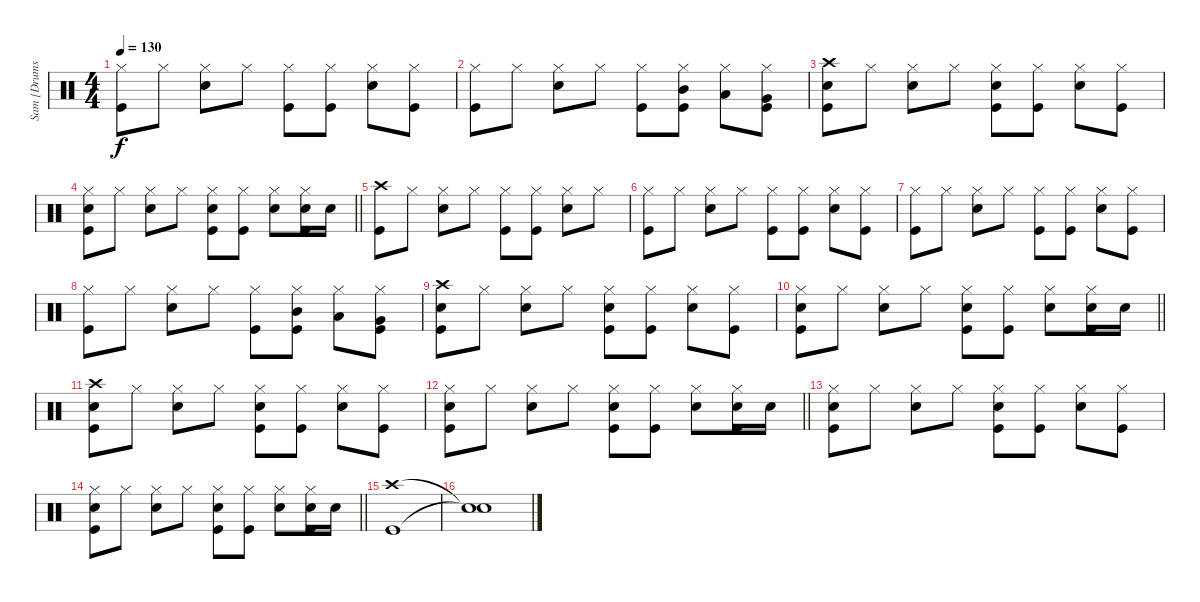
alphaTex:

\track ("Sam [Drums]" "Sam [Drums") {instrument percussion}
\staff {score}
\articulation defaults
\ts (4 4)
\tempo 130
\clef neutral
\ks c
("Hi-Hat (closed)" "Kick (hit)").8{dy f} "Hi-Hat (closed)".8 ("Hi-Hat (closed)" "Snare (hit) 2").8 "Hi-Hat (closed)".8 ("Hi-Hat (closed)" "Kick (hit)").8 ("Hi-Hat (closed)" "Kick (hit)").8 ("Hi-Hat (closed)" "Snare (hit) 2").8 ("Hi-Hat (closed)" "Kick (hit)").8 |
("Hi-Hat (closed)" "Kick (hit)").8 "Hi-Hat (closed)".8 ("Hi-Hat (closed)" "Snare (hit) 2").8 "Hi-Hat (closed)".8 ("Hi-Hat (closed)" "Kick (hit)").8 ("Hi-Hat (closed)" "Mid Tom (hit)" "Kick (hit)").8 ("Hi-Hat (closed)" "Low Tom (hit)").8 ("Hi-Hat (closed)" "Very Low Tom (hit)" "Kick (hit)").8 |
("Crash high (hit)" "Snare (hit) 2" "Kick (hit)").8 "Hi-Hat (closed)".8 ("Hi-Hat (closed)" "Snare (hit) 2").8 "Hi-Hat (closed)".8 ("Hi-Hat (closed)" "Snare (hit) 2" "Kick (hit)").8 ("Hi-Hat (closed)" "Kick (hit)").8 ("Hi-Hat (closed)" "Snare (hit) 2").8 ("Hi-Hat (closed)" "Kick (hit)").8 |
\barLineRight lightlight
("Hi-Hat (closed)" "Snare (hit) 2" "Kick (hit)").8 "Hi-Hat (closed)".8 ("Hi-Hat (closed)" "Snare (hit) 2").8 "Hi-Hat (closed)".8 ("Hi-Hat (closed)" "Snare (hit) 2" "Kick (hit)").8 ("Hi-Hat (closed)" "Kick (hit)").8 ("Hi-Hat (closed)" "Snare (hit) 2").8 ("Hi-Hat (closed)" "Snare (hit) 2" "Kick (hit)").16 "Snare (hit) 2".16 |
("Crash high (hit)" "Kick (hit)").8 "Hi-Hat (closed)".8 ("Hi-Hat (closed)" "Snare (hit) 2").8 "Hi-Hat (closed)".8 ("Hi-Hat (closed)" "Kick (hit)").8 ("Hi-Hat (closed)" "Kick (hit)").8 ("Hi-Hat (closed)" "Snare (hit) 2").8 "Hi-Hat (closed)".8 |
("Hi-Hat (closed)" "Kick (hit)").8 "Hi-Hat (closed)".8 ("Hi-Hat (closed)" "Snare (hit) 2").8 "Hi-Hat (closed)".8 ("Hi-Hat (closed)" "Kick (hit)").8 ("Hi-Hat (closed)" "Kick (hit)").8 ("Hi-Hat (closed)" "Snare (hit) 2").8 ("Hi-Hat (closed)" "Kick (hit)").8 |
("Hi-Hat (closed)" "Kick (hit)").8 "Hi-Hat (closed)".8 ("Hi-Hat (closed)" "Snare (hit) 2").8 "Hi-Hat (closed)".8 ("Hi-Hat (closed)" "Kick (hit)").8 ("Hi-Hat (closed)" "Kick (hit)").8 ("Hi-Hat (closed)" "Snare (hit) 2").8 ("Hi-Hat (closed)" "Kick (hit)").8 |
("Hi-Hat (closed)" "Kick (hit)").8 "Hi-Hat (closed)".8 ("Hi-Hat (closed)" "Snare (hit) 2").8 "Hi-Hat (closed)".8 ("Hi-Hat (closed)" "Kick (hit)").8 ("Hi-Hat (closed)" "Mid Tom (hit)" "Kick (hit)").8 ("Hi-Hat (closed)" "Low Tom (hit)").8 ("Hi-Hat (closed)" "Very Low Tom (hit)" "Kick (hit)").8 |
("Crash high (hit)" "Snare (hit) 2" "Kick (hit)").8 "Hi-Hat (closed)".8 ("Hi-Hat (closed)" "Snare (hit) 2").8 "Hi-Hat (closed)".8 ("Hi-Hat (closed)" "Snare (hit) 2" "Kick (hit)").8 ("Hi-Hat (closed)" "Kick (hit)").8 ("Hi-Hat (closed)" "Snare (hit) 2").8 ("Hi-Hat (closed)" "Kick (hit)").8 |
\barLineRight lightlight
("Hi-Hat (closed)" "Snare (hit) 2" "Kick (hit)").8 "Hi-Hat (closed)".8 ("Hi-Hat (closed)" "Snare (hit) 2").8 "Hi-Hat (closed)".8 ("Hi-Hat (closed)" "Snare (hit) 2" "Kick (hit)").8 ("Hi-Hat (closed)" "Kick (hit)").8 ("Hi-Hat (closed)" "Snare (hit) 2").8 ("Hi-Hat (closed)" "Snare (hit) 2" "Kick (hit)").16 "Snare (hit) 2".16 |
("Crash high (hit)" "Snare (hit) 2" "Kick (hit)").8 "Hi-Hat (closed)".8 ("Hi-Hat (closed)" "Snare (hit) 2").8 "Hi-Hat (closed)".8 ("Hi-Hat (closed)" "Snare (hit) 2" "Kick (hit)").8 ("Hi-Hat (closed)" "Kick (hit)").8 ("Hi-Hat (closed)" "Snare (hit) 2").8 ("Hi-Hat (closed)" "Kick (hit)").8 |
\barLineRight lightlight
("Hi-Hat (closed)" "Snare (hit) 2" "Kick (hit)").8 "Hi-Hat (closed)".8 ("Hi-Hat (closed)" "Snare (hit) 2").8 "Hi-Hat (closed)".8 ("Hi-Hat (closed)" "Snare (hit) 2" "Kick (hit)").8 ("Hi-Hat (closed)" "Kick (hit)").8 ("Hi-Hat (closed)" "Snare (hit) 2").8 ("Hi-Hat (closed)" "Snare (hit) 2" "Kick (hit)").16 "Snare (hit) 2".16 |
("Hi-Hat (closed)" "Snare (hit) 2" "Kick (hit)").8 "Hi-Hat (closed)".8 ("Hi-Hat (closed)" "Snare (hit) 2").8 "Hi-Hat (closed)".8 ("Hi-Hat (closed)" "Snare (hit) 2" "Kick (hit)").8 ("Hi-Hat (closed)" "Kick (hit)").8 ("Hi-Hat (closed)" "Snare (hit) 2").8 ("Hi-Hat (closed)" "Kick (hit)").8 |
\barLineRight lightlight
("Hi-Hat (closed)" "Snare (hit) 2" "Kick (hit)").8 "Hi-Hat (closed)".8 ("Hi-Hat (closed)" "Snare (hit) 2").8 "Hi-Hat (closed)".8 ("Hi-Hat (closed)" "Snare (hit) 2" "Kick (hit)").8 ("Hi-Hat (closed)" "Kick (hit)").8 ("Hi-Hat (closed)" "Snare (hit) 2").8 ("Hi-Hat (closed)" "Snare (hit) 2" "Kick (hit)").16 "Snare (hit) 2".16 |
("Crash high (hit)" "Kick (hit)").1 |
("Snare (hit)"{t} "Snare (hit)"{t}).1
